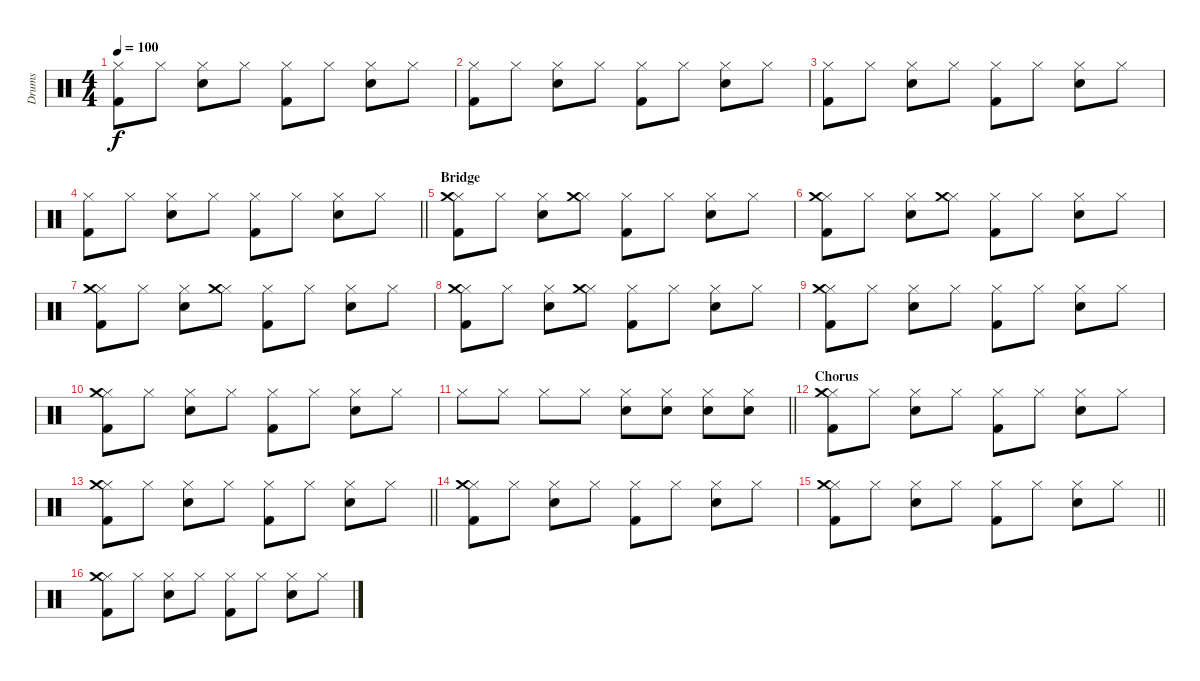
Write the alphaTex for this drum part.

\track ("Drums" "Drums") {instrument percussion}
\staff {score}
\articulation defaults
\ts (4 4)
\tempo 100
\clef neutral
\ks c
("Hi-Hat (closed)" "Kick (hit) 2").8{dy f} "Hi-Hat (closed)".8 ("Hi-Hat (closed)" "Snare (hit) 2").8 "Hi-Hat (closed)".8 ("Hi-Hat (closed)" "Kick (hit) 2").8 "Hi-Hat (closed)".8 ("Hi-Hat (closed)" "Snare (hit) 2").8 "Hi-Hat (closed)".8 |
("Hi-Hat (closed)" "Kick (hit) 2").8 "Hi-Hat (closed)".8 ("Hi-Hat (closed)" "Snare (hit) 2").8 "Hi-Hat (closed)".8 ("Hi-Hat (closed)" "Kick (hit) 2").8 "Hi-Hat (closed)".8 ("Hi-Hat (closed)" "Snare (hit) 2").8 "Hi-Hat (closed)".8 |
("Hi-Hat (closed)" "Kick (hit) 2").8 "Hi-Hat (closed)".8 ("Hi-Hat (closed)" "Snare (hit) 2").8 "Hi-Hat (closed)".8 ("Hi-Hat (closed)" "Kick (hit) 2").8 "Hi-Hat (closed)".8 ("Hi-Hat (closed)" "Snare (hit) 2").8 "Hi-Hat (closed)".8 |
\barLineRight lightlight
("Hi-Hat (closed)" "Kick (hit) 2").8 "Hi-Hat (closed)".8 ("Hi-Hat (closed)" "Snare (hit) 2").8 "Hi-Hat (closed)".8 ("Hi-Hat (closed)" "Kick (hit) 2").8 "Hi-Hat (closed)".8 ("Hi-Hat (closed)" "Snare (hit) 2").8 "Hi-Hat (closed)".8 |
\section ("" "Bridge")
("Hi-Hat (closed)" "Kick (hit) 2" "Crash medium (hit)").8 "Hi-Hat (closed)".8 ("Hi-Hat (closed)" "Snare (hit) 2").8 ("Hi-Hat (closed)" "Crash medium (hit)").8 ("Hi-Hat (closed)" "Kick (hit) 2").8 "Hi-Hat (closed)".8 ("Hi-Hat (closed)" "Snare (hit) 2").8 "Hi-Hat (closed)".8 |
("Hi-Hat (closed)" "Kick (hit) 2" "Crash medium (hit)").8 "Hi-Hat (closed)".8 ("Hi-Hat (closed)" "Snare (hit) 2").8 ("Hi-Hat (closed)" "Crash medium (hit)").8 ("Hi-Hat (closed)" "Kick (hit) 2").8 "Hi-Hat (closed)".8 ("Hi-Hat (closed)" "Snare (hit) 2").8 "Hi-Hat (closed)".8 |
("Hi-Hat (closed)" "Kick (hit) 2" "Crash medium (hit)").8 "Hi-Hat (closed)".8 ("Hi-Hat (closed)" "Snare (hit) 2").8 ("Hi-Hat (closed)" "Crash medium (hit)").8 ("Hi-Hat (closed)" "Kick (hit) 2").8 "Hi-Hat (closed)".8 ("Hi-Hat (closed)" "Snare (hit) 2").8 "Hi-Hat (closed)".8 |
("Hi-Hat (closed)" "Kick (hit) 2" "Crash medium (hit)").8 "Hi-Hat (closed)".8 ("Hi-Hat (closed)" "Snare (hit) 2").8 ("Hi-Hat (closed)" "Crash medium (hit)").8 ("Hi-Hat (closed)" "Kick (hit) 2").8 "Hi-Hat (closed)".8 ("Hi-Hat (closed)" "Snare (hit) 2").8 "Hi-Hat (closed)".8 |
("Hi-Hat (closed)" "Kick (hit) 2" "Crash medium (hit)").8 "Hi-Hat (closed)".8 ("Hi-Hat (closed)" "Snare (hit) 2").8 "Hi-Hat (closed)".8 ("Hi-Hat (closed)" "Kick (hit) 2").8 "Hi-Hat (closed)".8 ("Hi-Hat (closed)" "Snare (hit) 2").8 "Hi-Hat (closed)".8 |
("Hi-Hat (closed)" "Kick (hit) 2" "Crash medium (hit)").8 "Hi-Hat (closed)".8 ("Hi-Hat (closed)" "Snare (hit) 2").8 "Hi-Hat (closed)".8 ("Hi-Hat (closed)" "Kick (hit) 2").8 "Hi-Hat (closed)".8 ("Hi-Hat (closed)" "Snare (hit) 2").8 "Hi-Hat (closed)".8 |
\barLineRight lightlight "Hi-Hat (closed)".8 "Hi-Hat (closed)".8 "Hi-Hat (closed)".8 "Hi-Hat (closed)".8
("Hi-Hat (closed)" "Snare (hit) 2").8 ("Hi-Hat (closed)" "Snare (hit) 2").8 ("Hi-Hat (closed)" "Snare (hit) 2").8 ("Hi-Hat (closed)" "Snare (hit) 2").8 |
\section ("" "Chorus")
("Hi-Hat (closed)" "Kick (hit) 2" "Crash medium (hit)").8 "Hi-Hat (closed)".8 ("Hi-Hat (closed)" "Snare (hit) 2").8 "Hi-Hat (closed)".8 ("Hi-Hat (closed)" "Kick (hit) 2").8 "Hi-Hat (closed)".8 ("Hi-Hat (closed)" "Snare (hit) 2").8 "Hi-Hat (closed)".8 |
\barLineRight lightlight
("Hi-Hat (closed)" "Kick (hit) 2" "Crash medium (hit)").8 "Hi-Hat (closed)".8 ("Hi-Hat (closed)" "Snare (hit) 2").8 "Hi-Hat (closed)".8 ("Hi-Hat (closed)" "Kick (hit) 2").8 "Hi-Hat (closed)".8 ("Hi-Hat (closed)" "Snare (hit) 2").8 "Hi-Hat (closed)".8 |
("Hi-Hat (closed)" "Kick (hit) 2" "Crash medium (hit)").8 "Hi-Hat (closed)".8 ("Hi-Hat (closed)" "Snare (hit) 2").8 "Hi-Hat (closed)".8 ("Hi-Hat (closed)" "Kick (hit) 2").8 "Hi-Hat (closed)".8 ("Hi-Hat (closed)" "Snare (hit) 2").8 "Hi-Hat (closed)".8 |
\barLineRight lightlight
("Hi-Hat (closed)" "Kick (hit) 2" "Crash medium (hit)").8 "Hi-Hat (closed)".8 ("Hi-Hat (closed)" "Snare (hit) 2").8 "Hi-Hat (closed)".8 ("Hi-Hat (closed)" "Kick (hit) 2").8 "Hi-Hat (closed)".8 ("Hi-Hat (closed)" "Snare (hit) 2").8 "Hi-Hat (closed)".8 |
("Hi-Hat (closed)" "Kick (hit) 2" "Crash medium (hit)").8 "Hi-Hat (closed)".8 ("Hi-Hat (closed)" "Snare (hit) 2").8 "Hi-Hat (closed)".8 ("Hi-Hat (closed)" "Kick (hit) 2").8 "Hi-Hat (closed)".8 ("Hi-Hat (closed)" "Snare (hit) 2").8 "Hi-Hat (closed)".8
